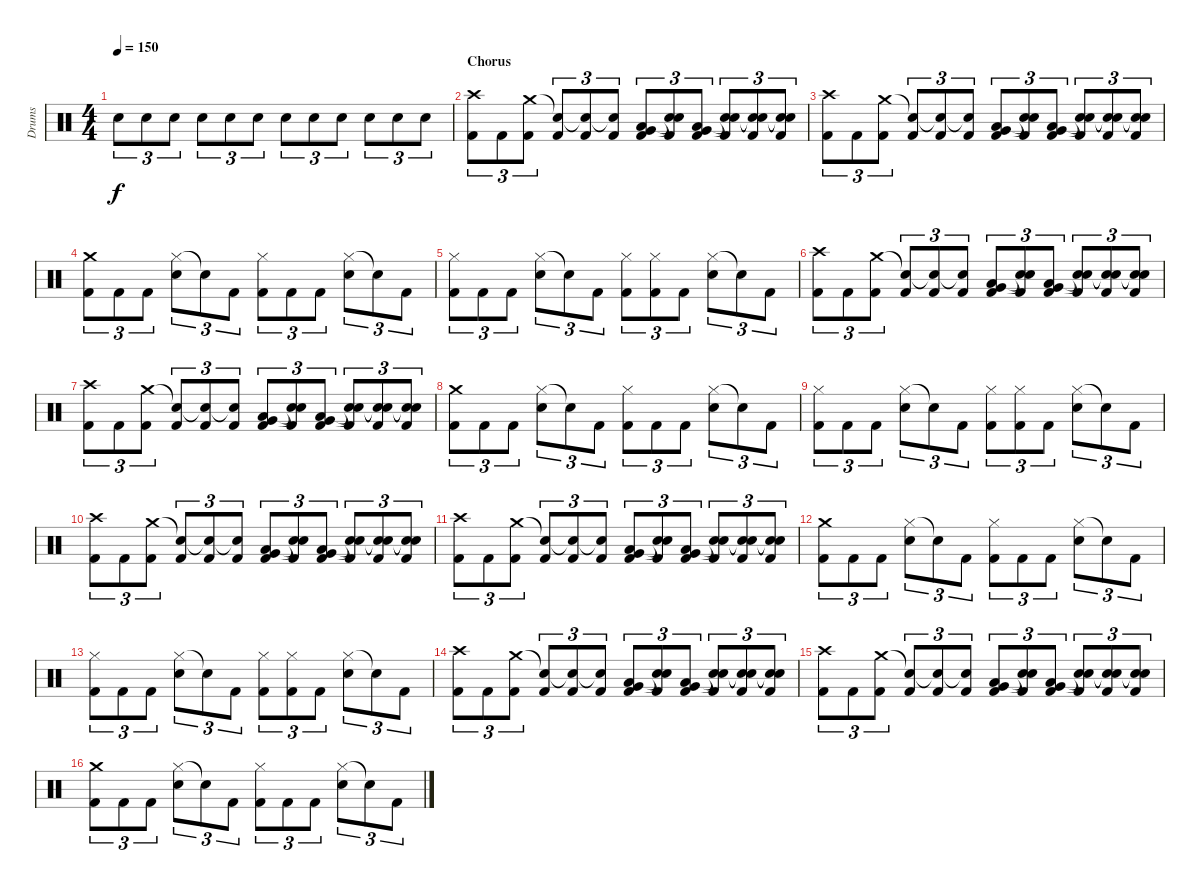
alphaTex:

\track ("Drums" "Drums") {instrument percussion}
\staff {score}
\articulation defaults
\ts (4 4)
\tempo 150
\clef neutral
\ks c "Electric Snare (hit)".8{tu (3 2) dy f} "Electric Snare (hit)".8{tu (3 2)} "Electric Snare (hit)".8{tu (3 2)} "Electric Snare (hit)".8{tu (3 2)} "Electric Snare (hit)".8{tu (3 2)} "Electric Snare (hit)".8{tu (3 2)} "Electric Snare (hit)".8{tu (3 2)} "Electric Snare (hit)".8{tu (3 2)} "Electric Snare (hit)".8{tu (3 2)} "Electric Snare (hit)".8{tu (3 2)} "Electric Snare (hit)".8{tu (3 2)} "Electric Snare (hit)".8{tu (3 2)}
|
\section ("" "Chorus")
("Crash high (hit)" "Kick (hit) 2").8{tu (3 2)} "Kick (hit) 2".8{tu (3 2)} ("Crash medium (hit)" "Kick (hit) 2").8{tu (3 2)} ("Snare (hit)"{t} "Kick (hit) 2").8{tu (3 2)} ("Snare (hit)"{t} "Kick (hit) 2").8{tu (3 2)} ("Snare (hit)"{t} "Kick (hit) 2").8{tu (3 2)} ("Low Tom (hit)" "Very Low Tom (hit)" "Kick (hit) 2").8{tu (3 2)} ("Snare (hit)"{t} "Snare (hit)"{t} "Kick (hit) 2").8{tu (3 2)} ("Low Tom (hit)" "Very Low Tom (hit)" "Kick (hit) 2").8{tu (3 2)} ("Snare (hit)"{t} "Snare (hit)"{t} "Kick (hit) 2").8{tu (3 2)} ("Snare (hit)"{t} "Snare (hit)"{t} "Kick (hit) 2").8{tu (3 2)} ("Snare (hit)"{t} "Snare (hit)"{t} "Kick (hit) 2").8{tu (3 2)} |
("Crash high (hit)" "Kick (hit) 2").8{tu (3 2)} "Kick (hit) 2".8{tu (3 2)} ("Crash medium (hit)" "Kick (hit) 2").8{tu (3 2)} ("Snare (hit)"{t} "Kick (hit) 2").8{tu (3 2)} ("Snare (hit)"{t} "Kick (hit) 2").8{tu (3 2)} ("Snare (hit)"{t} "Kick (hit) 2").8{tu (3 2)} ("Low Tom (hit)" "Very Low Tom (hit)" "Kick (hit) 2").8{tu (3 2)} ("Snare (hit)"{t} "Snare (hit)"{t} "Kick (hit) 2").8{tu (3 2)} ("Low Tom (hit)" "Very Low Tom (hit)" "Kick (hit) 2").8{tu (3 2)} ("Snare (hit)"{t} "Snare (hit)"{t} "Kick (hit) 2").8{tu (3 2)} ("Snare (hit)"{t} "Snare (hit)"{t} "Kick (hit) 2").8{tu (3 2)} ("Snare (hit)"{t} "Snare (hit)"{t} "Kick (hit) 2").8{tu (3 2)} |
("Crash medium (hit)" "Kick (hit) 2").8{tu (3 2)} "Kick (hit) 2".8{tu (3 2)} "Kick (hit) 2".8{tu (3 2)} ("Hi-Hat (closed)" "Electric Snare (hit)").8{tu (3 2)} "Snare (hit)"{t}.8{tu (3 2)} "Kick (hit) 2".8{tu (3 2)} ("Hi-Hat (closed)" "Kick (hit) 2").8{tu (3 2)} "Kick (hit) 2".8{tu (3 2)} "Kick (hit) 2".8{tu (3 2)} ("Hi-Hat (closed)" "Electric Snare (hit)").8{tu (3 2)} "Snare (hit)"{t}.8{tu (3 2)} "Kick (hit) 2".8{tu (3 2)} |
("Hi-Hat (closed)" "Kick (hit) 2").8{tu (3 2)} "Kick (hit) 2".8{tu (3 2)} "Kick (hit) 2".8{tu (3 2)} ("Hi-Hat (closed)" "Electric Snare (hit)").8{tu (3 2)} "Snare (hit)"{t}.8{tu (3 2)} "Kick (hit) 2".8{tu (3 2)} ("Hi-Hat (closed)" "Kick (hit) 2").8{tu (3 2)} ("Hi-Hat (closed)" "Kick (hit) 2").8{tu (3 2)} "Kick (hit) 2".8{tu (3 2)} ("Hi-Hat (closed)" "Electric Snare (hit)").8{tu (3 2)} "Snare (hit)"{t}.8{tu (3 2)} "Kick (hit) 2".8{tu (3 2)} |
("Crash high (hit)" "Kick (hit) 2").8{tu (3 2)} "Kick (hit) 2".8{tu (3 2)} ("Crash medium (hit)" "Kick (hit) 2").8{tu (3 2)} ("Snare (hit)"{t} "Kick (hit) 2").8{tu (3 2)} ("Snare (hit)"{t} "Kick (hit) 2").8{tu (3 2)} ("Snare (hit)"{t} "Kick (hit) 2").8{tu (3 2)} ("Low Tom (hit)" "Very Low Tom (hit)" "Kick (hit) 2").8{tu (3 2)} ("Snare (hit)"{t} "Snare (hit)"{t} "Kick (hit) 2").8{tu (3 2)} ("Low Tom (hit)" "Very Low Tom (hit)" "Kick (hit) 2").8{tu (3 2)} ("Snare (hit)"{t} "Snare (hit)"{t} "Kick (hit) 2").8{tu (3 2)} ("Snare (hit)"{t} "Snare (hit)"{t} "Kick (hit) 2").8{tu (3 2)} ("Snare (hit)"{t} "Snare (hit)"{t} "Kick (hit) 2").8{tu (3 2)} |
("Crash high (hit)" "Kick (hit) 2").8{tu (3 2)} "Kick (hit) 2".8{tu (3 2)} ("Crash medium (hit)" "Kick (hit) 2").8{tu (3 2)} ("Snare (hit)"{t} "Kick (hit) 2").8{tu (3 2)} ("Snare (hit)"{t} "Kick (hit) 2").8{tu (3 2)} ("Snare (hit)"{t} "Kick (hit) 2").8{tu (3 2)} ("Low Tom (hit)" "Very Low Tom (hit)" "Kick (hit) 2").8{tu (3 2)} ("Snare (hit)"{t} "Snare (hit)"{t} "Kick (hit) 2").8{tu (3 2)} ("Low Tom (hit)" "Very Low Tom (hit)" "Kick (hit) 2").8{tu (3 2)} ("Snare (hit)"{t} "Snare (hit)"{t} "Kick (hit) 2").8{tu (3 2)} ("Snare (hit)"{t} "Snare (hit)"{t} "Kick (hit) 2").8{tu (3 2)} ("Snare (hit)"{t} "Snare (hit)"{t} "Kick (hit) 2").8{tu (3 2)} |
("Crash medium (hit)" "Kick (hit) 2").8{tu (3 2)} "Kick (hit) 2".8{tu (3 2)} "Kick (hit) 2".8{tu (3 2)} ("Hi-Hat (closed)" "Electric Snare (hit)").8{tu (3 2)} "Snare (hit)"{t}.8{tu (3 2)} "Kick (hit) 2".8{tu (3 2)} ("Hi-Hat (closed)" "Kick (hit) 2").8{tu (3 2)} "Kick (hit) 2".8{tu (3 2)} "Kick (hit) 2".8{tu (3 2)} ("Hi-Hat (closed)" "Electric Snare (hit)").8{tu (3 2)} "Snare (hit)"{t}.8{tu (3 2)} "Kick (hit) 2".8{tu (3 2)} |
("Hi-Hat (closed)" "Kick (hit) 2").8{tu (3 2)} "Kick (hit) 2".8{tu (3 2)} "Kick (hit) 2".8{tu (3 2)} ("Hi-Hat (closed)" "Electric Snare (hit)").8{tu (3 2)} "Snare (hit)"{t}.8{tu (3 2)} "Kick (hit) 2".8{tu (3 2)} ("Hi-Hat (closed)" "Kick (hit) 2").8{tu (3 2)} ("Hi-Hat (closed)" "Kick (hit) 2").8{tu (3 2)} "Kick (hit) 2".8{tu (3 2)} ("Hi-Hat (closed)" "Electric Snare (hit)").8{tu (3 2)} "Snare (hit)"{t}.8{tu (3 2)} "Kick (hit) 2".8{tu (3 2)} |
("Crash high (hit)" "Kick (hit) 2").8{tu (3 2)} "Kick (hit) 2".8{tu (3 2)} ("Crash medium (hit)" "Kick (hit) 2").8{tu (3 2)} ("Snare (hit)"{t} "Kick (hit) 2").8{tu (3 2)} ("Snare (hit)"{t} "Kick (hit) 2").8{tu (3 2)} ("Snare (hit)"{t} "Kick (hit) 2").8{tu (3 2)} ("Low Tom (hit)" "Very Low Tom (hit)" "Kick (hit) 2").8{tu (3 2)} ("Snare (hit)"{t} "Snare (hit)"{t} "Kick (hit) 2").8{tu (3 2)} ("Low Tom (hit)" "Very Low Tom (hit)" "Kick (hit) 2").8{tu (3 2)} ("Snare (hit)"{t} "Snare (hit)"{t} "Kick (hit) 2").8{tu (3 2)} ("Snare (hit)"{t} "Snare (hit)"{t} "Kick (hit) 2").8{tu (3 2)} ("Snare (hit)"{t} "Snare (hit)"{t} "Kick (hit) 2").8{tu (3 2)} |
("Crash high (hit)" "Kick (hit) 2").8{tu (3 2)} "Kick (hit) 2".8{tu (3 2)} ("Crash medium (hit)" "Kick (hit) 2").8{tu (3 2)} ("Snare (hit)"{t} "Kick (hit) 2").8{tu (3 2)} ("Snare (hit)"{t} "Kick (hit) 2").8{tu (3 2)} ("Snare (hit)"{t} "Kick (hit) 2").8{tu (3 2)} ("Low Tom (hit)" "Very Low Tom (hit)" "Kick (hit) 2").8{tu (3 2)} ("Snare (hit)"{t} "Snare (hit)"{t} "Kick (hit) 2").8{tu (3 2)} ("Low Tom (hit)" "Very Low Tom (hit)" "Kick (hit) 2").8{tu (3 2)} ("Snare (hit)"{t} "Snare (hit)"{t} "Kick (hit) 2").8{tu (3 2)} ("Snare (hit)"{t} "Snare (hit)"{t} "Kick (hit) 2").8{tu (3 2)} ("Snare (hit)"{t} "Snare (hit)"{t} "Kick (hit) 2").8{tu (3 2)} |
("Crash medium (hit)" "Kick (hit) 2").8{tu (3 2)} "Kick (hit) 2".8{tu (3 2)} "Kick (hit) 2".8{tu (3 2)} ("Hi-Hat (closed)" "Electric Snare (hit)").8{tu (3 2)} "Snare (hit)"{t}.8{tu (3 2)} "Kick (hit) 2".8{tu (3 2)} ("Hi-Hat (closed)" "Kick (hit) 2").8{tu (3 2)} "Kick (hit) 2".8{tu (3 2)} "Kick (hit) 2".8{tu (3 2)} ("Hi-Hat (closed)" "Electric Snare (hit)").8{tu (3 2)} "Snare (hit)"{t}.8{tu (3 2)} "Kick (hit) 2".8{tu (3 2)} |
("Hi-Hat (closed)" "Kick (hit) 2").8{tu (3 2)} "Kick (hit) 2".8{tu (3 2)} "Kick (hit) 2".8{tu (3 2)} ("Hi-Hat (closed)" "Electric Snare (hit)").8{tu (3 2)} "Snare (hit)"{t}.8{tu (3 2)} "Kick (hit) 2".8{tu (3 2)} ("Hi-Hat (closed)" "Kick (hit) 2").8{tu (3 2)} ("Hi-Hat (closed)" "Kick (hit) 2").8{tu (3 2)} "Kick (hit) 2".8{tu (3 2)} ("Hi-Hat (closed)" "Electric Snare (hit)").8{tu (3 2)} "Snare (hit)"{t}.8{tu (3 2)} "Kick (hit) 2".8{tu (3 2)} |
("Crash high (hit)" "Kick (hit) 2").8{tu (3 2)} "Kick (hit) 2".8{tu (3 2)} ("Crash medium (hit)" "Kick (hit) 2").8{tu (3 2)} ("Snare (hit)"{t} "Kick (hit) 2").8{tu (3 2)} ("Snare (hit)"{t} "Kick (hit) 2").8{tu (3 2)} ("Snare (hit)"{t} "Kick (hit) 2").8{tu (3 2)} ("Low Tom (hit)" "Very Low Tom (hit)" "Kick (hit) 2").8{tu (3 2)} ("Snare (hit)"{t} "Snare (hit)"{t} "Kick (hit) 2").8{tu (3 2)} ("Low Tom (hit)" "Very Low Tom (hit)" "Kick (hit) 2").8{tu (3 2)} ("Snare (hit)"{t} "Snare (hit)"{t} "Kick (hit) 2").8{tu (3 2)} ("Snare (hit)"{t} "Snare (hit)"{t} "Kick (hit) 2").8{tu (3 2)} ("Snare (hit)"{t} "Snare (hit)"{t} "Kick (hit) 2").8{tu (3 2)} |
("Crash high (hit)" "Kick (hit) 2").8{tu (3 2)} "Kick (hit) 2".8{tu (3 2)} ("Crash medium (hit)" "Kick (hit) 2").8{tu (3 2)} ("Snare (hit)"{t} "Kick (hit) 2").8{tu (3 2)} ("Snare (hit)"{t} "Kick (hit) 2").8{tu (3 2)} ("Snare (hit)"{t} "Kick (hit) 2").8{tu (3 2)} ("Low Tom (hit)" "Very Low Tom (hit)" "Kick (hit) 2").8{tu (3 2)} ("Snare (hit)"{t} "Snare (hit)"{t} "Kick (hit) 2").8{tu (3 2)} ("Low Tom (hit)" "Very Low Tom (hit)" "Kick (hit) 2").8{tu (3 2)} ("Snare (hit)"{t} "Snare (hit)"{t} "Kick (hit) 2").8{tu (3 2)} ("Snare (hit)"{t} "Snare (hit)"{t} "Kick (hit) 2").8{tu (3 2)} ("Snare (hit)"{t} "Snare (hit)"{t} "Kick (hit) 2").8{tu (3 2)} |
("Crash medium (hit)" "Kick (hit) 2").8{tu (3 2)} "Kick (hit) 2".8{tu (3 2)} "Kick (hit) 2".8{tu (3 2)} ("Hi-Hat (closed)" "Electric Snare (hit)").8{tu (3 2)} "Snare (hit)"{t}.8{tu (3 2)} "Kick (hit) 2".8{tu (3 2)} ("Hi-Hat (closed)" "Kick (hit) 2").8{tu (3 2)} "Kick (hit) 2".8{tu (3 2)} "Kick (hit) 2".8{tu (3 2)} ("Hi-Hat (closed)" "Electric Snare (hit)").8{tu (3 2)} "Snare (hit)"{t}.8{tu (3 2)} "Kick (hit) 2".8{tu (3 2)}
